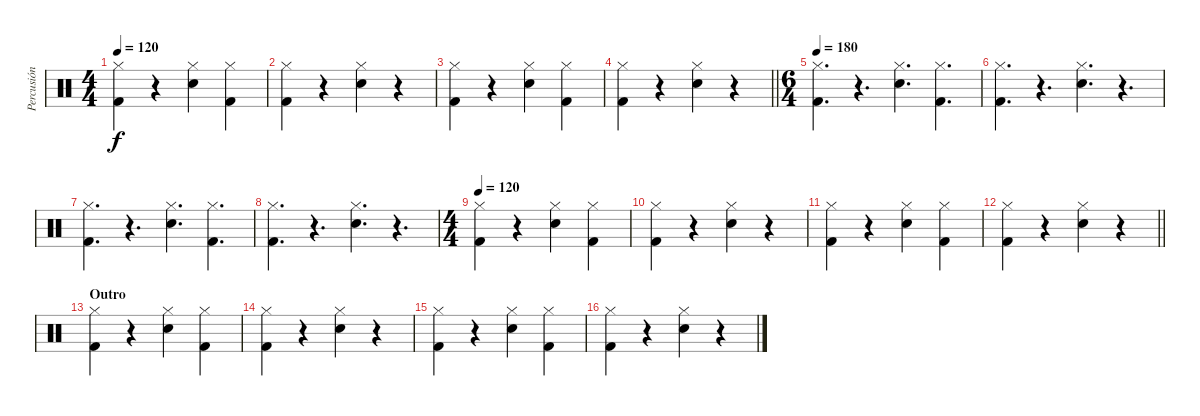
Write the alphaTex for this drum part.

\track ("Percusión" "Percusión") {instrument percussion}
\staff {score}
\articulation defaults
\ts (4 4)
\tempo 120
\clef neutral
\ks c
("Hi-Hat (closed)" "Kick (hit) 2").4{dy f} r.4 ("Hi-Hat (closed)" "Snare (hit) 2").4 ("Hi-Hat (closed)" "Kick (hit) 2").4 |
("Hi-Hat (closed)" "Kick (hit) 2").4 r.4 ("Hi-Hat (closed)" "Snare (hit) 2").4 r.4 |
("Hi-Hat (closed)" "Kick (hit) 2").4 r.4 ("Hi-Hat (closed)" "Snare (hit) 2").4 ("Hi-Hat (closed)" "Kick (hit) 2").4 |
\barLineRight lightlight
("Hi-Hat (closed)" "Kick (hit) 2").4 r.4 ("Hi-Hat (closed)" "Snare (hit) 2").4 r.4 |
\ts (6 4)
\tempo 180
("Hi-Hat (closed)" "Kick (hit) 2").4{d} r.4{d} ("Hi-Hat (closed)" "Snare (hit) 2").4{d} ("Hi-Hat (closed)" "Kick (hit) 2").4{d} |
("Hi-Hat (closed)" "Kick (hit) 2").4{d} r.4{d} ("Hi-Hat (closed)" "Snare (hit) 2").4{d} r.4{d} |
("Hi-Hat (closed)" "Kick (hit) 2").4{d} r.4{d} ("Hi-Hat (closed)" "Snare (hit) 2").4{d} ("Hi-Hat (closed)" "Kick (hit) 2").4{d} |
("Hi-Hat (closed)" "Kick (hit) 2").4{d} r.4{d} ("Hi-Hat (closed)" "Snare (hit) 2").4{d} r.4{d} |
\ts (4 4)
\tempo 120
("Hi-Hat (closed)" "Kick (hit) 2").4 r.4 ("Hi-Hat (closed)" "Snare (hit) 2").4 ("Hi-Hat (closed)" "Kick (hit) 2").4 |
("Hi-Hat (closed)" "Kick (hit) 2").4 r.4 ("Hi-Hat (closed)" "Snare (hit) 2").4 r.4 |
("Hi-Hat (closed)" "Kick (hit) 2").4 r.4 ("Hi-Hat (closed)" "Snare (hit) 2").4 ("Hi-Hat (closed)" "Kick (hit) 2").4 |
\barLineRight lightlight
("Hi-Hat (closed)" "Kick (hit) 2").4 r.4 ("Hi-Hat (closed)" "Snare (hit) 2").4 r.4 |
\section ("" "Outro")
("Hi-Hat (closed)" "Kick (hit) 2").4 r.4 ("Hi-Hat (closed)" "Snare (hit) 2").4 ("Hi-Hat (closed)" "Kick (hit) 2").4 |
("Hi-Hat (closed)" "Kick (hit) 2").4 r.4 ("Hi-Hat (closed)" "Snare (hit) 2").4 r.4 |
("Hi-Hat (closed)" "Kick (hit) 2").4 r.4 ("Hi-Hat (closed)" "Snare (hit) 2").4 ("Hi-Hat (closed)" "Kick (hit) 2").4 |
("Hi-Hat (closed)" "Kick (hit) 2").4 r.4 ("Hi-Hat (closed)" "Snare (hit) 2").4 r.4
